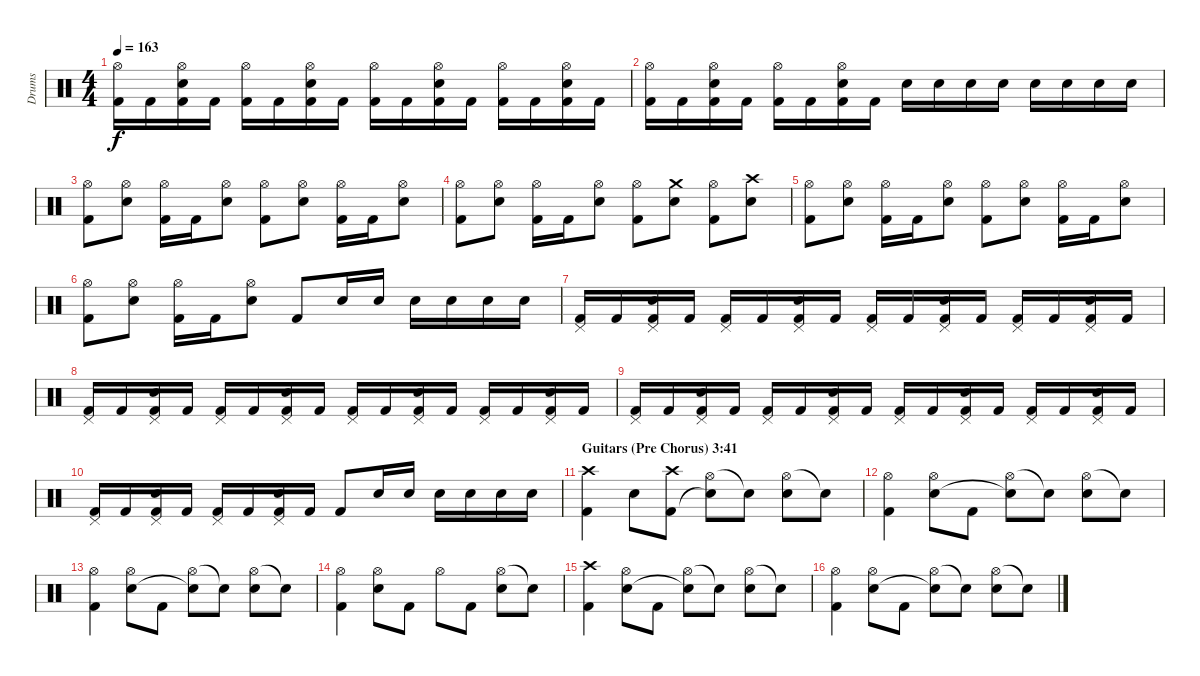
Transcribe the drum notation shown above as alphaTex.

\track ("Drums" "Drums") {instrument percussion}
\staff {score}
\articulation defaults
\ts (4 4)
\tempo 163
\clef neutral
\ks c
("Hi-Hat (open)" "Kick (hit) 2").16{dy f} "Kick (hit) 2".16 ("Hi-Hat (open)" "Kick (hit) 2" "Snare (hit) 2").16 "Kick (hit) 2".16 ("Hi-Hat (open)" "Kick (hit) 2").16 "Kick (hit) 2".16 ("Hi-Hat (open)" "Kick (hit) 2" "Snare (hit) 2").16 "Kick (hit) 2".16 ("Hi-Hat (open)" "Kick (hit) 2").16 "Kick (hit) 2".16 ("Hi-Hat (open)" "Kick (hit) 2" "Snare (hit) 2").16 "Kick (hit) 2".16 ("Hi-Hat (open)" "Kick (hit) 2").16 "Kick (hit) 2".16 ("Hi-Hat (open)" "Kick (hit) 2" "Snare (hit) 2").16 "Kick (hit) 2".16 |
("Hi-Hat (open)" "Kick (hit) 2").16 "Kick (hit) 2".16 ("Hi-Hat (open)" "Kick (hit) 2" "Snare (hit) 2").16 "Kick (hit) 2".16 ("Hi-Hat (open)" "Kick (hit) 2").16 "Kick (hit) 2".16 ("Hi-Hat (open)" "Kick (hit) 2" "Snare (hit) 2").16 "Kick (hit) 2".16 "Snare (hit) 2".16 "Snare (hit) 2".16 "Snare (hit) 2".16 "Snare (hit) 2".16 "Snare (hit) 2".16 "Snare (hit) 2".16 "Snare (hit) 2".16 "Snare (hit) 2".16 |
("Hi-Hat (open)" "Kick (hit) 2").8 ("Hi-Hat (open)" "Snare (hit) 2").8 ("Hi-Hat (open)" "Kick (hit) 2").16 "Kick (hit) 2".16 ("Hi-Hat (open)" "Snare (hit) 2").8 ("Hi-Hat (open)" "Kick (hit) 2").8 ("Hi-Hat (open)" "Snare (hit) 2").8 ("Hi-Hat (open)" "Kick (hit) 2").16 "Kick (hit) 2".16 ("Hi-Hat (open)" "Snare (hit) 2").8 |
("Hi-Hat (open)" "Kick (hit) 2").8 ("Hi-Hat (open)" "Snare (hit) 2").8 ("Hi-Hat (open)" "Kick (hit) 2").16 "Kick (hit) 2".16 ("Hi-Hat (open)" "Snare (hit) 2").8 ("Hi-Hat (open)" "Kick (hit) 2").8 ("Crash medium (hit)" "Snare (hit) 2").8 ("Hi-Hat (open)" "Kick (hit) 2").8 ("Crash high (hit)" "Snare (hit) 2").8 |
("Hi-Hat (open)" "Kick (hit) 2").8 ("Hi-Hat (open)" "Snare (hit) 2").8 ("Hi-Hat (open)" "Kick (hit) 2").16 "Kick (hit) 2".16 ("Hi-Hat (open)" "Snare (hit) 2").8 ("Hi-Hat (open)" "Kick (hit) 2").8 ("Hi-Hat (open)" "Snare (hit) 2").8 ("Hi-Hat (open)" "Kick (hit) 2").16 "Kick (hit) 2".16 ("Hi-Hat (open)" "Snare (hit) 2").8 |
("Hi-Hat (open)" "Kick (hit) 2").8 ("Hi-Hat (open)" "Snare (hit) 2").8 ("Hi-Hat (open)" "Kick (hit) 2").16 "Kick (hit) 2".16 ("Hi-Hat (open)" "Snare (hit) 2").8 "Kick (hit) 2".8 "Snare (hit) 2".16 "Snare (hit) 2".16 "Snare (hit) 2".16 "Snare (hit) 2".16 "Snare (hit) 2".16 "Snare (hit) 2".16 |
("Pedal Hi-Hat (hit)" "Kick (hit) 2").16 "Kick (hit) 2".16 ("Pedal Hi-Hat (hit)" "Kick (hit) 2" "Snare (hit) 2").16 "Kick (hit) 2".16 ("Pedal Hi-Hat (hit)" "Kick (hit) 2").16 "Kick (hit) 2".16 ("Pedal Hi-Hat (hit)" "Kick (hit) 2" "Snare (hit) 2").16 "Kick (hit) 2".16 ("Pedal Hi-Hat (hit)" "Kick (hit) 2").16 "Kick (hit) 2".16 ("Pedal Hi-Hat (hit)" "Kick (hit) 2" "Snare (hit) 2").16 "Kick (hit) 2".16 ("Pedal Hi-Hat (hit)" "Kick (hit) 2").16 "Kick (hit) 2".16 ("Pedal Hi-Hat (hit)" "Kick (hit) 2" "Snare (hit) 2").16 "Kick (hit) 2".16 |
("Pedal Hi-Hat (hit)" "Kick (hit) 2").16 "Kick (hit) 2".16 ("Pedal Hi-Hat (hit)" "Kick (hit) 2" "Snare (hit) 2").16 "Kick (hit) 2".16 ("Pedal Hi-Hat (hit)" "Kick (hit) 2").16 "Kick (hit) 2".16 ("Pedal Hi-Hat (hit)" "Kick (hit) 2" "Snare (hit) 2").16 "Kick (hit) 2".16 ("Pedal Hi-Hat (hit)" "Kick (hit) 2").16 "Kick (hit) 2".16 ("Pedal Hi-Hat (hit)" "Kick (hit) 2" "Snare (hit) 2").16 "Kick (hit) 2".16 ("Pedal Hi-Hat (hit)" "Kick (hit) 2").16 "Kick (hit) 2".16 ("Pedal Hi-Hat (hit)" "Kick (hit) 2" "Snare (hit) 2").16 "Kick (hit) 2".16 |
("Pedal Hi-Hat (hit)" "Kick (hit) 2").16 "Kick (hit) 2".16 ("Pedal Hi-Hat (hit)" "Kick (hit) 2" "Snare (hit) 2").16 "Kick (hit) 2".16 ("Pedal Hi-Hat (hit)" "Kick (hit) 2").16 "Kick (hit) 2".16 ("Pedal Hi-Hat (hit)" "Kick (hit) 2" "Snare (hit) 2").16 "Kick (hit) 2".16 ("Pedal Hi-Hat (hit)" "Kick (hit) 2").16 "Kick (hit) 2".16 ("Pedal Hi-Hat (hit)" "Kick (hit) 2" "Snare (hit) 2").16 "Kick (hit) 2".16 ("Pedal Hi-Hat (hit)" "Kick (hit) 2").16 "Kick (hit) 2".16 ("Pedal Hi-Hat (hit)" "Kick (hit) 2" "Snare (hit) 2").16 "Kick (hit) 2".16 |
("Pedal Hi-Hat (hit)" "Kick (hit) 2").16 "Kick (hit) 2".16 ("Pedal Hi-Hat (hit)" "Kick (hit) 2" "Snare (hit) 2").16 "Kick (hit) 2".16 ("Pedal Hi-Hat (hit)" "Kick (hit) 2").16 "Kick (hit) 2".16 ("Pedal Hi-Hat (hit)" "Kick (hit) 2" "Snare (hit) 2").16 "Kick (hit) 2".16 "Kick (hit) 2".8 "Snare (hit) 2".16 "Snare (hit) 2".16 "Snare (hit) 2".16 "Snare (hit) 2".16 "Snare (hit) 2".16 "Snare (hit) 2".16 |
\section ("" "Guitars (Pre Chorus) 3:41")
("Crash high (hit)" "Kick (hit) 2").4 "Snare (hit) 2".8 ("Crash high (hit)" "Kick (hit) 2").8 ("Hi-Hat (open)" "Snare (hit)"{t}).8 "Snare (hit)"{t}.8 ("Hi-Hat (open)" "Snare (hit) 2").8 "Snare (hit)"{t}.8 |
("Hi-Hat (open)" "Kick (hit) 2").4 ("Hi-Hat (open)" "Snare (hit) 2").8 "Kick (hit) 2".8 ("Hi-Hat (open)" "Snare (hit)"{t}).8 "Snare (hit)"{t}.8 ("Hi-Hat (open)" "Snare (hit) 2").8 "Snare (hit)"{t}.8 |
("Hi-Hat (open)" "Kick (hit) 2").4 ("Hi-Hat (open)" "Snare (hit) 2").8 "Kick (hit) 2".8 ("Hi-Hat (open)" "Snare (hit)"{t}).8 "Snare (hit)"{t}.8 ("Hi-Hat (open)" "Snare (hit) 2").8 "Snare (hit)"{t}.8 |
("Hi-Hat (open)" "Kick (hit) 2").4 ("Hi-Hat (open)" "Snare (hit) 2").8 "Kick (hit) 2".8 "Hi-Hat (open)".8 "Kick (hit) 2".8 ("Hi-Hat (open)" "Snare (hit) 2").8 "Snare (hit)"{t}.8 |
("Crash high (hit)" "Kick (hit) 2").4 ("Hi-Hat (open)" "Snare (hit) 2").8 "Kick (hit) 2".8 ("Hi-Hat (open)" "Snare (hit)"{t}).8 "Snare (hit)"{t}.8 ("Hi-Hat (open)" "Snare (hit) 2").8 "Snare (hit)"{t}.8 |
("Hi-Hat (open)" "Kick (hit) 2").4 ("Hi-Hat (open)" "Snare (hit) 2").8 "Kick (hit) 2".8 ("Hi-Hat (open)" "Snare (hit)"{t}).8 "Snare (hit)"{t}.8 ("Hi-Hat (open)" "Snare (hit) 2").8 "Snare (hit)"{t}.8
